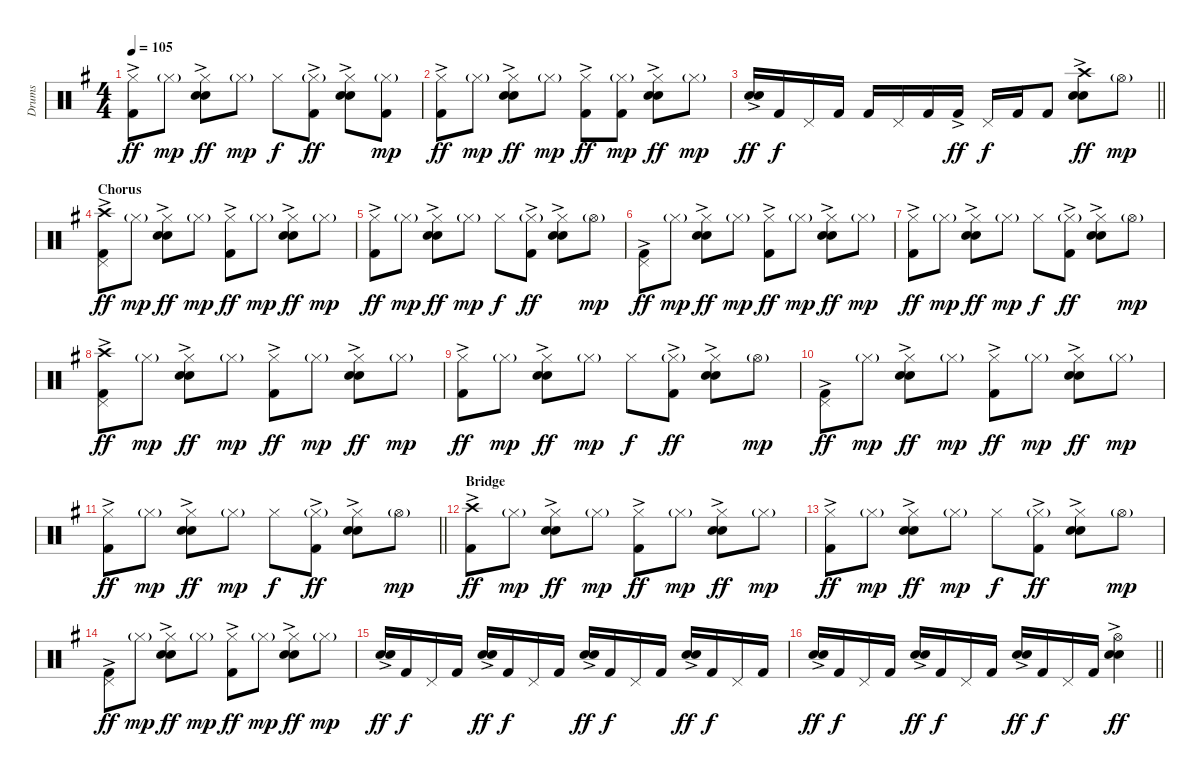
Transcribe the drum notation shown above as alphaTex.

\track ("Drums" "Drums") {instrument percussion}
\staff {score}
\articulation defaults
\ts (4 4)
\tempo 105
\clef neutral
\ks g
("Hi-Hat (closed)" "Kick (hit) 2"{ac}).8{dy ff} "Hi-Hat (closed)"{g}.8{dy mp} ("Hi-Hat (closed)" "Electric Snare (hit)"{ac} "Snare (hit) 2").8{dy ff} "Hi-Hat (closed)"{g}.8{dy mp} "Hi-Hat (closed)".8{dy f} ("Hi-Hat (closed)"{g} "Kick (hit) 2"{ac}).8{dy ff} ("Hi-Hat (closed)" "Electric Snare (hit)"{ac} "Snare (hit) 2").8 ("Hi-Hat (closed)"{g} "Kick (hit) 2").8{dy mp} |
("Hi-Hat (closed)" "Kick (hit) 2"{ac}).8{dy ff} "Hi-Hat (closed)"{g}.8{dy mp} ("Hi-Hat (closed)" "Electric Snare (hit)"{ac} "Snare (hit) 2").8{dy ff} "Hi-Hat (closed)"{g}.8{dy mp} ("Hi-Hat (closed)" "Kick (hit) 2"{ac}).8{dy ff} ("Hi-Hat (closed)"{g} "Kick (hit) 2").8{dy mp} ("Hi-Hat (closed)" "Electric Snare (hit)"{ac} "Snare (hit) 2").8{dy ff} "Hi-Hat (closed)"{g}.8{dy mp} |
\barLineRight lightlight
("Electric Snare (hit)"{ac} "Snare (hit) 2").16{dy ff} "Kick (hit) 2".16{dy f} "Pedal Hi-Hat (hit)".16 "Kick (hit) 2".16 "Kick (hit) 2".16 "Pedal Hi-Hat (hit)".16 "Kick (hit) 2".16 "Kick (hit) 2"{ac}.16{dy ff} "Pedal Hi-Hat (hit)".16{dy f} "Kick (hit) 2".16 "Kick (hit) 2".8 ("Crash high (hit)" "Electric Snare (hit)"{ac} "Snare (hit) 2").8{dy ff} "Hi-Hat (open)"{g}.8{dy mp} |
\section ("" "Chorus")
("Pedal Hi-Hat (hit)" "Crash high (hit)" "Kick (hit) 2"{ac}).8{dy ff} "Hi-Hat (closed)"{g}.8{dy mp} ("Hi-Hat (closed)" "Electric Snare (hit)"{ac} "Snare (hit) 2").8{dy ff} "Hi-Hat (closed)"{g}.8{dy mp} ("Hi-Hat (closed)" "Kick (hit) 2"{ac}).8{dy ff} "Hi-Hat (closed)"{g}.8{dy mp} ("Hi-Hat (closed)" "Electric Snare (hit)"{ac} "Snare (hit) 2").8{dy ff} "Hi-Hat (closed)"{g}.8{dy mp} |
("Hi-Hat (closed)" "Kick (hit) 2"{ac}).8{dy ff} "Hi-Hat (closed)"{g}.8{dy mp} ("Hi-Hat (closed)" "Electric Snare (hit)"{ac} "Snare (hit) 2").8{dy ff} "Hi-Hat (closed)"{g}.8{dy mp} "Hi-Hat (closed)".8{dy f} ("Hi-Hat (closed)"{g} "Kick (hit) 2"{ac}).8{dy ff} ("Hi-Hat (closed)" "Electric Snare (hit)"{ac} "Snare (hit) 2").8 "Hi-Hat (open)"{g}.8{dy mp} |
("Pedal Hi-Hat (hit)" "Kick (hit) 2"{ac}).8{dy ff} "Hi-Hat (closed)"{g}.8{dy mp} ("Hi-Hat (closed)" "Electric Snare (hit)"{ac} "Snare (hit) 2").8{dy ff} "Hi-Hat (closed)"{g}.8{dy mp} ("Hi-Hat (closed)" "Kick (hit) 2"{ac}).8{dy ff} "Hi-Hat (closed)"{g}.8{dy mp} ("Hi-Hat (closed)" "Electric Snare (hit)"{ac} "Snare (hit) 2").8{dy ff} "Hi-Hat (closed)"{g}.8{dy mp} |
("Hi-Hat (closed)" "Kick (hit) 2"{ac}).8{dy ff} "Hi-Hat (closed)"{g}.8{dy mp} ("Hi-Hat (closed)" "Electric Snare (hit)"{ac} "Snare (hit) 2").8{dy ff} "Hi-Hat (closed)"{g}.8{dy mp} "Hi-Hat (closed)".8{dy f} ("Hi-Hat (closed)"{g} "Kick (hit) 2"{ac}).8{dy ff} ("Hi-Hat (closed)" "Electric Snare (hit)"{ac} "Snare (hit) 2").8 "Hi-Hat (open)"{g}.8{dy mp} |
("Pedal Hi-Hat (hit)" "Crash high (hit)" "Kick (hit) 2"{ac}).8{dy ff} "Hi-Hat (closed)"{g}.8{dy mp} ("Hi-Hat (closed)" "Electric Snare (hit)"{ac} "Snare (hit) 2").8{dy ff} "Hi-Hat (closed)"{g}.8{dy mp} ("Hi-Hat (closed)" "Kick (hit) 2"{ac}).8{dy ff} "Hi-Hat (closed)"{g}.8{dy mp} ("Hi-Hat (closed)" "Electric Snare (hit)"{ac} "Snare (hit) 2").8{dy ff} "Hi-Hat (closed)"{g}.8{dy mp} |
("Hi-Hat (closed)" "Kick (hit) 2"{ac}).8{dy ff} "Hi-Hat (closed)"{g}.8{dy mp} ("Hi-Hat (closed)" "Electric Snare (hit)"{ac} "Snare (hit) 2").8{dy ff} "Hi-Hat (closed)"{g}.8{dy mp} "Hi-Hat (closed)".8{dy f} ("Hi-Hat (closed)"{g} "Kick (hit) 2"{ac}).8{dy ff} ("Hi-Hat (closed)" "Electric Snare (hit)"{ac} "Snare (hit) 2").8 "Hi-Hat (open)"{g}.8{dy mp} |
("Pedal Hi-Hat (hit)" "Kick (hit) 2"{ac}).8{dy ff} "Hi-Hat (closed)"{g}.8{dy mp} ("Hi-Hat (closed)" "Electric Snare (hit)"{ac} "Snare (hit) 2").8{dy ff} "Hi-Hat (closed)"{g}.8{dy mp} ("Hi-Hat (closed)" "Kick (hit) 2"{ac}).8{dy ff} "Hi-Hat (closed)"{g}.8{dy mp} ("Hi-Hat (closed)" "Electric Snare (hit)"{ac} "Snare (hit) 2").8{dy ff} "Hi-Hat (closed)"{g}.8{dy mp} |
\barLineRight lightlight
("Hi-Hat (closed)" "Kick (hit) 2"{ac}).8{dy ff} "Hi-Hat (closed)"{g}.8{dy mp} ("Hi-Hat (closed)" "Electric Snare (hit)"{ac} "Snare (hit) 2").8{dy ff} "Hi-Hat (closed)"{g}.8{dy mp} "Hi-Hat (closed)".8{dy f} ("Hi-Hat (closed)"{g} "Kick (hit) 2"{ac}).8{dy ff} ("Hi-Hat (closed)" "Electric Snare (hit)"{ac} "Snare (hit) 2").8 "Hi-Hat (open)"{g}.8{dy mp} |
\section ("" "Bridge")
("Crash high (hit)" "Kick (hit) 2"{ac}).8{dy ff} "Hi-Hat (closed)"{g}.8{dy mp} ("Hi-Hat (closed)" "Electric Snare (hit)"{ac} "Snare (hit) 2").8{dy ff} "Hi-Hat (closed)"{g}.8{dy mp} ("Hi-Hat (closed)" "Kick (hit) 2"{ac}).8{dy ff} "Hi-Hat (closed)"{g}.8{dy mp} ("Hi-Hat (closed)" "Electric Snare (hit)"{ac} "Snare (hit) 2").8{dy ff} "Hi-Hat (closed)"{g}.8{dy mp} |
("Hi-Hat (closed)" "Kick (hit) 2"{ac}).8{dy ff} "Hi-Hat (closed)"{g}.8{dy mp} ("Hi-Hat (closed)" "Electric Snare (hit)"{ac} "Snare (hit) 2").8{dy ff} "Hi-Hat (closed)"{g}.8{dy mp} "Hi-Hat (closed)".8{dy f} ("Hi-Hat (closed)"{g} "Kick (hit) 2"{ac}).8{dy ff} ("Hi-Hat (closed)" "Electric Snare (hit)"{ac} "Snare (hit) 2").8 "Hi-Hat (open)"{g}.8{dy mp} |
("Pedal Hi-Hat (hit)" "Kick (hit) 2"{ac}).8{dy ff} "Hi-Hat (closed)"{g}.8{dy mp} ("Hi-Hat (closed)" "Electric Snare (hit)"{ac} "Snare (hit) 2").8{dy ff} "Hi-Hat (closed)"{g}.8{dy mp} ("Hi-Hat (closed)" "Kick (hit) 2"{ac}).8{dy ff} "Hi-Hat (closed)"{g}.8{dy mp} ("Hi-Hat (closed)" "Electric Snare (hit)"{ac} "Snare (hit) 2").8{dy ff} "Hi-Hat (closed)"{g}.8{dy mp} |
("Electric Snare (hit)"{ac} "Snare (hit) 2").16{dy ff} "Kick (hit) 2".16{dy f} "Pedal Hi-Hat (hit)".16 "Kick (hit) 2".16 ("Electric Snare (hit)"{ac} "Snare (hit) 2").16{dy ff} "Kick (hit) 2".16{dy f} "Pedal Hi-Hat (hit)".16 "Kick (hit) 2".16 ("Electric Snare (hit)"{ac} "Snare (hit) 2").16{dy ff} "Kick (hit) 2".16{dy f} "Pedal Hi-Hat (hit)".16 "Kick (hit) 2".16 ("Electric Snare (hit)"{ac} "Snare (hit) 2").16{dy ff} "Kick (hit) 2".16{dy f} "Pedal Hi-Hat (hit)".16 "Kick (hit) 2".16 |
\barLineRight lightlight
("Electric Snare (hit)"{ac} "Snare (hit) 2").16{dy ff} "Kick (hit) 2".16{dy f} "Pedal Hi-Hat (hit)".16 "Kick (hit) 2".16 ("Electric Snare (hit)"{ac} "Snare (hit) 2").16{dy ff} "Kick (hit) 2".16{dy f} "Pedal Hi-Hat (hit)".16 "Kick (hit) 2".16 ("Electric Snare (hit)"{ac} "Snare (hit) 2").16{dy ff} "Kick (hit) 2".16{dy f} "Pedal Hi-Hat (hit)".16 "Kick (hit) 2".16 ("Hi-Hat (open)" "Electric Snare (hit)"{ac} "Snare (hit) 2").4{dy ff}
